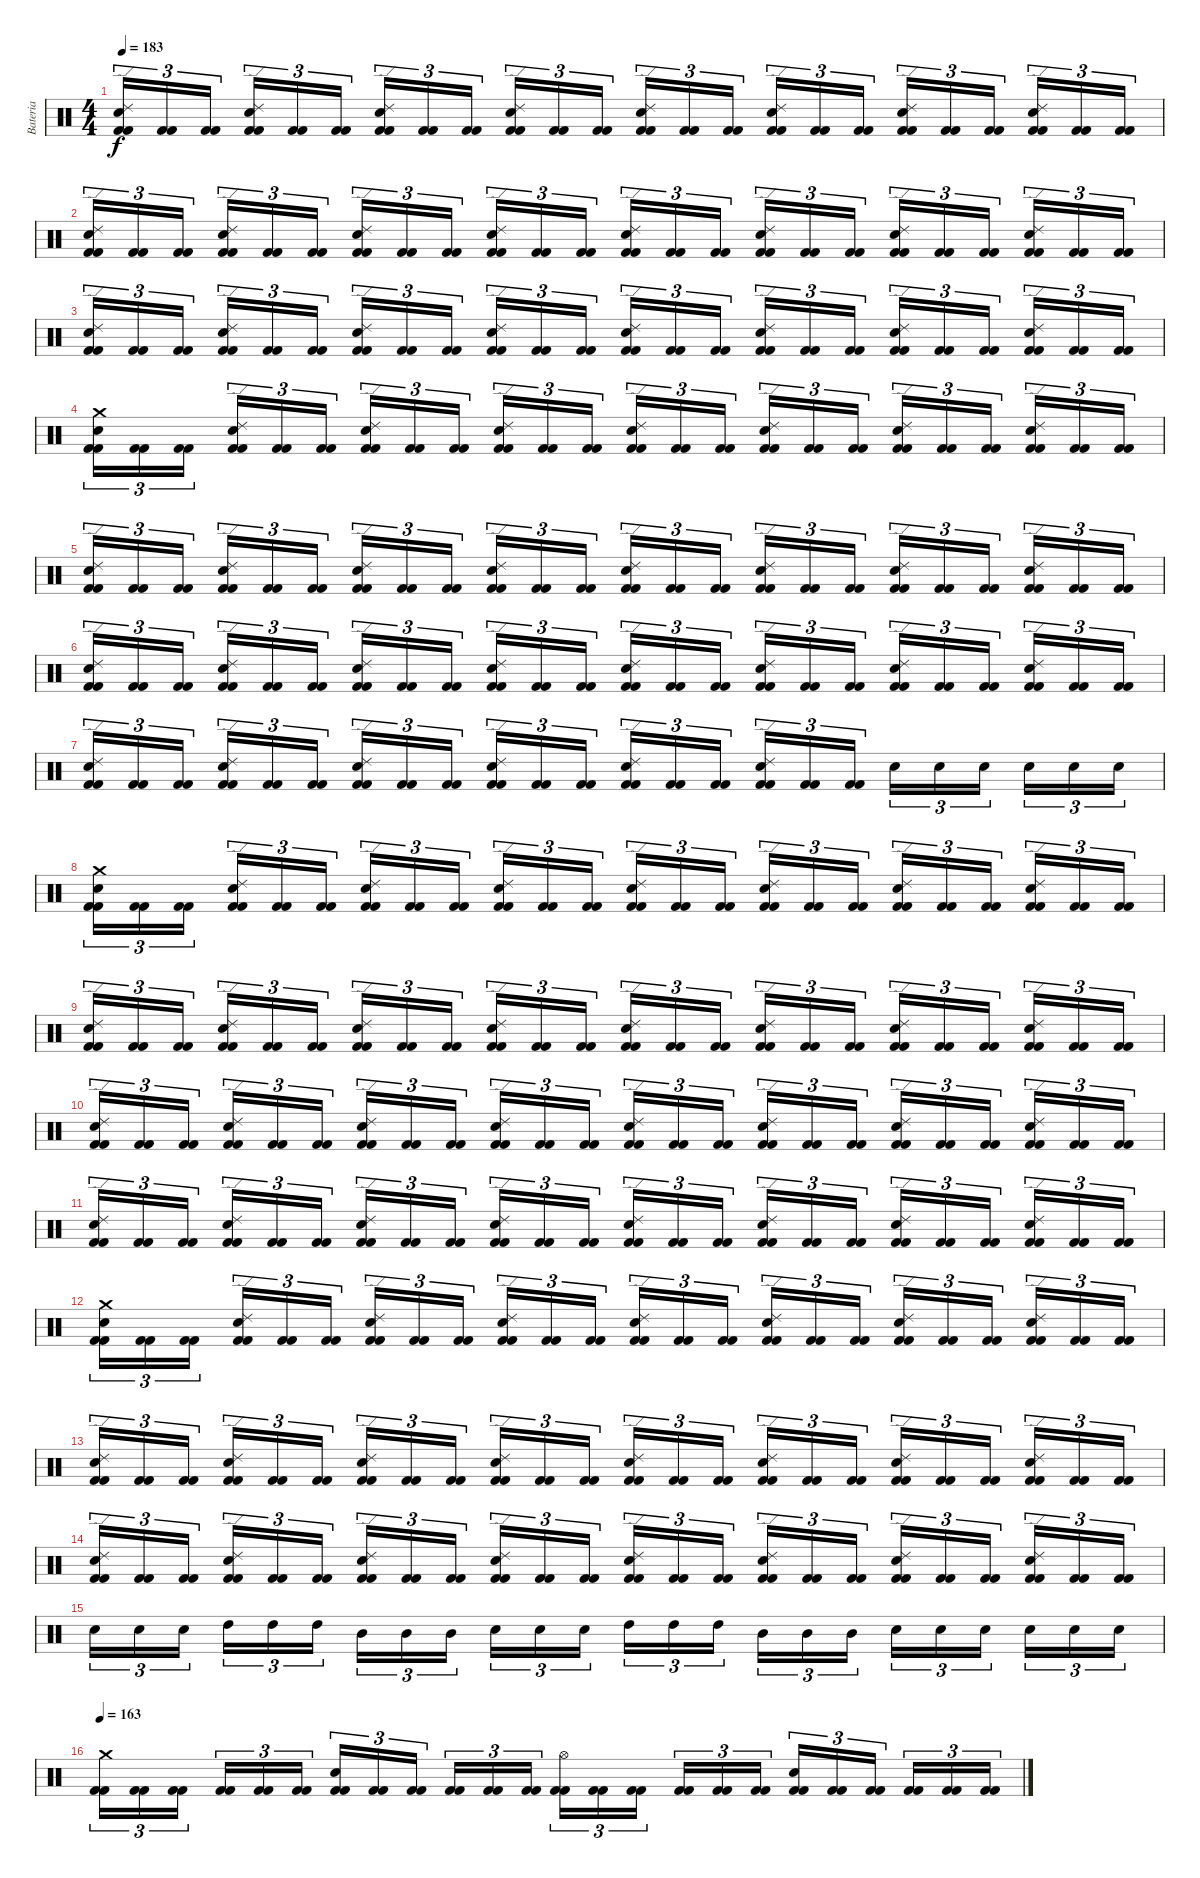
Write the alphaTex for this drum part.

\track ("Bateria" "Bateria") {instrument percussion}
\staff {score}
\articulation defaults
\ts (4 4)
\tempo 183
\clef neutral
\ks c
("Kick (hit) 2" "Kick (hit) 2" "Snare (hit) 2" "Ride (edge) 2").16{tu (3 2) dy f} ("Kick (hit) 2" "Kick (hit) 2").16{tu (3 2)} ("Kick (hit) 2" "Kick (hit) 2").16{tu (3 2)} ("Kick (hit) 2" "Kick (hit) 2" "Snare (hit) 2" "Ride (edge) 2").16{tu (3 2)} ("Kick (hit) 2" "Kick (hit) 2").16{tu (3 2)} ("Kick (hit) 2" "Kick (hit) 2").16{tu (3 2)} ("Kick (hit) 2" "Kick (hit) 2" "Snare (hit) 2" "Ride (edge) 2").16{tu (3 2)} ("Kick (hit) 2" "Kick (hit) 2").16{tu (3 2)} ("Kick (hit) 2" "Kick (hit) 2").16{tu (3 2)} ("Kick (hit) 2" "Kick (hit) 2" "Snare (hit) 2" "Ride (edge) 2").16{tu (3 2)} ("Kick (hit) 2" "Kick (hit) 2").16{tu (3 2)} ("Kick (hit) 2" "Kick (hit) 2").16{tu (3 2)} ("Kick (hit) 2" "Kick (hit) 2" "Snare (hit) 2" "Ride (edge) 2").16{tu (3 2)} ("Kick (hit) 2" "Kick (hit) 2").16{tu (3 2)} ("Kick (hit) 2" "Kick (hit) 2").16{tu (3 2)} ("Kick (hit) 2" "Kick (hit) 2" "Snare (hit) 2" "Ride (edge) 2").16{tu (3 2)} ("Kick (hit) 2" "Kick (hit) 2").16{tu (3 2)} ("Kick (hit) 2" "Kick (hit) 2").16{tu (3 2)} ("Kick (hit) 2" "Kick (hit) 2" "Snare (hit) 2" "Ride (edge) 2").16{tu (3 2)} ("Kick (hit) 2" "Kick (hit) 2").16{tu (3 2)} ("Kick (hit) 2" "Kick (hit) 2").16{tu (3 2)} ("Kick (hit) 2" "Kick (hit) 2" "Snare (hit) 2" "Ride (edge) 2").16{tu (3 2)} ("Kick (hit) 2" "Kick (hit) 2").16{tu (3 2)} ("Kick (hit) 2" "Kick (hit) 2").16{tu (3 2)} |
("Kick (hit) 2" "Kick (hit) 2" "Snare (hit) 2" "Ride (edge) 2").16{tu (3 2)} ("Kick (hit) 2" "Kick (hit) 2").16{tu (3 2)} ("Kick (hit) 2" "Kick (hit) 2").16{tu (3 2)} ("Kick (hit) 2" "Kick (hit) 2" "Snare (hit) 2" "Ride (edge) 2").16{tu (3 2)} ("Kick (hit) 2" "Kick (hit) 2").16{tu (3 2)} ("Kick (hit) 2" "Kick (hit) 2").16{tu (3 2)} ("Kick (hit) 2" "Kick (hit) 2" "Snare (hit) 2" "Ride (edge) 2").16{tu (3 2)} ("Kick (hit) 2" "Kick (hit) 2").16{tu (3 2)} ("Kick (hit) 2" "Kick (hit) 2").16{tu (3 2)} ("Kick (hit) 2" "Kick (hit) 2" "Snare (hit) 2" "Ride (edge) 2").16{tu (3 2)} ("Kick (hit) 2" "Kick (hit) 2").16{tu (3 2)} ("Kick (hit) 2" "Kick (hit) 2").16{tu (3 2)} ("Kick (hit) 2" "Kick (hit) 2" "Snare (hit) 2" "Ride (edge) 2").16{tu (3 2)} ("Kick (hit) 2" "Kick (hit) 2").16{tu (3 2)} ("Kick (hit) 2" "Kick (hit) 2").16{tu (3 2)} ("Kick (hit) 2" "Kick (hit) 2" "Snare (hit) 2" "Ride (edge) 2").16{tu (3 2)} ("Kick (hit) 2" "Kick (hit) 2").16{tu (3 2)} ("Kick (hit) 2" "Kick (hit) 2").16{tu (3 2)} ("Kick (hit) 2" "Kick (hit) 2" "Snare (hit) 2" "Ride (edge) 2").16{tu (3 2)} ("Kick (hit) 2" "Kick (hit) 2").16{tu (3 2)} ("Kick (hit) 2" "Kick (hit) 2").16{tu (3 2)} ("Kick (hit) 2" "Kick (hit) 2" "Snare (hit) 2" "Ride (edge) 2").16{tu (3 2)} ("Kick (hit) 2" "Kick (hit) 2").16{tu (3 2)} ("Kick (hit) 2" "Kick (hit) 2").16{tu (3 2)} |
("Kick (hit) 2" "Kick (hit) 2" "Snare (hit) 2" "Ride (edge) 2").16{tu (3 2)} ("Kick (hit) 2" "Kick (hit) 2").16{tu (3 2)} ("Kick (hit) 2" "Kick (hit) 2").16{tu (3 2)} ("Kick (hit) 2" "Kick (hit) 2" "Snare (hit) 2" "Ride (edge) 2").16{tu (3 2)} ("Kick (hit) 2" "Kick (hit) 2").16{tu (3 2)} ("Kick (hit) 2" "Kick (hit) 2").16{tu (3 2)} ("Kick (hit) 2" "Kick (hit) 2" "Snare (hit) 2" "Ride (edge) 2").16{tu (3 2)} ("Kick (hit) 2" "Kick (hit) 2").16{tu (3 2)} ("Kick (hit) 2" "Kick (hit) 2").16{tu (3 2)} ("Kick (hit) 2" "Kick (hit) 2" "Snare (hit) 2" "Ride (edge) 2").16{tu (3 2)} ("Kick (hit) 2" "Kick (hit) 2").16{tu (3 2)} ("Kick (hit) 2" "Kick (hit) 2").16{tu (3 2)} ("Kick (hit) 2" "Kick (hit) 2" "Snare (hit) 2" "Ride (edge) 2").16{tu (3 2)} ("Kick (hit) 2" "Kick (hit) 2").16{tu (3 2)} ("Kick (hit) 2" "Kick (hit) 2").16{tu (3 2)} ("Kick (hit) 2" "Kick (hit) 2" "Snare (hit) 2" "Ride (edge) 2").16{tu (3 2)} ("Kick (hit) 2" "Kick (hit) 2").16{tu (3 2)} ("Kick (hit) 2" "Kick (hit) 2").16{tu (3 2)} ("Kick (hit) 2" "Kick (hit) 2" "Snare (hit) 2" "Ride (edge) 2").16{tu (3 2)} ("Kick (hit) 2" "Kick (hit) 2").16{tu (3 2)} ("Kick (hit) 2" "Kick (hit) 2").16{tu (3 2)} ("Kick (hit) 2" "Kick (hit) 2" "Snare (hit) 2" "Ride (edge) 2").16{tu (3 2)} ("Kick (hit) 2" "Kick (hit) 2").16{tu (3 2)} ("Kick (hit) 2" "Kick (hit) 2").16{tu (3 2)} |
("Kick (hit) 2" "Kick (hit) 2" "Snare (hit) 2" "Crash medium (hit)").16{tu (3 2)} ("Kick (hit) 2" "Kick (hit) 2").16{tu (3 2)} ("Kick (hit) 2" "Kick (hit) 2").16{tu (3 2)} ("Kick (hit) 2" "Kick (hit) 2" "Snare (hit) 2" "Ride (edge) 2").16{tu (3 2)} ("Kick (hit) 2" "Kick (hit) 2").16{tu (3 2)} ("Kick (hit) 2" "Kick (hit) 2").16{tu (3 2)} ("Kick (hit) 2" "Kick (hit) 2" "Snare (hit) 2" "Ride (edge) 2").16{tu (3 2)} ("Kick (hit) 2" "Kick (hit) 2").16{tu (3 2)} ("Kick (hit) 2" "Kick (hit) 2").16{tu (3 2)} ("Kick (hit) 2" "Kick (hit) 2" "Snare (hit) 2" "Ride (edge) 2").16{tu (3 2)} ("Kick (hit) 2" "Kick (hit) 2").16{tu (3 2)} ("Kick (hit) 2" "Kick (hit) 2").16{tu (3 2)} ("Kick (hit) 2" "Kick (hit) 2" "Snare (hit) 2" "Ride (edge) 2").16{tu (3 2)} ("Kick (hit) 2" "Kick (hit) 2").16{tu (3 2)} ("Kick (hit) 2" "Kick (hit) 2").16{tu (3 2)} ("Kick (hit) 2" "Kick (hit) 2" "Snare (hit) 2" "Ride (edge) 2").16{tu (3 2)} ("Kick (hit) 2" "Kick (hit) 2").16{tu (3 2)} ("Kick (hit) 2" "Kick (hit) 2").16{tu (3 2)} ("Kick (hit) 2" "Kick (hit) 2" "Snare (hit) 2" "Ride (edge) 2").16{tu (3 2)} ("Kick (hit) 2" "Kick (hit) 2").16{tu (3 2)} ("Kick (hit) 2" "Kick (hit) 2").16{tu (3 2)} ("Kick (hit) 2" "Kick (hit) 2" "Snare (hit) 2" "Ride (edge) 2").16{tu (3 2)} ("Kick (hit) 2" "Kick (hit) 2").16{tu (3 2)} ("Kick (hit) 2" "Kick (hit) 2").16{tu (3 2)} |
("Kick (hit) 2" "Kick (hit) 2" "Snare (hit) 2" "Ride (edge) 2").16{tu (3 2)} ("Kick (hit) 2" "Kick (hit) 2").16{tu (3 2)} ("Kick (hit) 2" "Kick (hit) 2").16{tu (3 2)} ("Kick (hit) 2" "Kick (hit) 2" "Snare (hit) 2" "Ride (edge) 2").16{tu (3 2)} ("Kick (hit) 2" "Kick (hit) 2").16{tu (3 2)} ("Kick (hit) 2" "Kick (hit) 2").16{tu (3 2)} ("Kick (hit) 2" "Kick (hit) 2" "Snare (hit) 2" "Ride (edge) 2").16{tu (3 2)} ("Kick (hit) 2" "Kick (hit) 2").16{tu (3 2)} ("Kick (hit) 2" "Kick (hit) 2").16{tu (3 2)} ("Kick (hit) 2" "Kick (hit) 2" "Snare (hit) 2" "Ride (edge) 2").16{tu (3 2)} ("Kick (hit) 2" "Kick (hit) 2").16{tu (3 2)} ("Kick (hit) 2" "Kick (hit) 2").16{tu (3 2)} ("Kick (hit) 2" "Kick (hit) 2" "Snare (hit) 2" "Ride (edge) 2").16{tu (3 2)} ("Kick (hit) 2" "Kick (hit) 2").16{tu (3 2)} ("Kick (hit) 2" "Kick (hit) 2").16{tu (3 2)} ("Kick (hit) 2" "Kick (hit) 2" "Snare (hit) 2" "Ride (edge) 2").16{tu (3 2)} ("Kick (hit) 2" "Kick (hit) 2").16{tu (3 2)} ("Kick (hit) 2" "Kick (hit) 2").16{tu (3 2)} ("Kick (hit) 2" "Kick (hit) 2" "Snare (hit) 2" "Ride (edge) 2").16{tu (3 2)} ("Kick (hit) 2" "Kick (hit) 2").16{tu (3 2)} ("Kick (hit) 2" "Kick (hit) 2").16{tu (3 2)} ("Kick (hit) 2" "Kick (hit) 2" "Snare (hit) 2" "Ride (edge) 2").16{tu (3 2)} ("Kick (hit) 2" "Kick (hit) 2").16{tu (3 2)} ("Kick (hit) 2" "Kick (hit) 2").16{tu (3 2)} |
("Kick (hit) 2" "Kick (hit) 2" "Snare (hit) 2" "Ride (edge) 2").16{tu (3 2)} ("Kick (hit) 2" "Kick (hit) 2").16{tu (3 2)} ("Kick (hit) 2" "Kick (hit) 2").16{tu (3 2)} ("Kick (hit) 2" "Kick (hit) 2" "Snare (hit) 2" "Ride (edge) 2").16{tu (3 2)} ("Kick (hit) 2" "Kick (hit) 2").16{tu (3 2)} ("Kick (hit) 2" "Kick (hit) 2").16{tu (3 2)} ("Kick (hit) 2" "Kick (hit) 2" "Snare (hit) 2" "Ride (edge) 2").16{tu (3 2)} ("Kick (hit) 2" "Kick (hit) 2").16{tu (3 2)} ("Kick (hit) 2" "Kick (hit) 2").16{tu (3 2)} ("Kick (hit) 2" "Kick (hit) 2" "Snare (hit) 2" "Ride (edge) 2").16{tu (3 2)} ("Kick (hit) 2" "Kick (hit) 2").16{tu (3 2)} ("Kick (hit) 2" "Kick (hit) 2").16{tu (3 2)} ("Kick (hit) 2" "Kick (hit) 2" "Snare (hit) 2" "Ride (edge) 2").16{tu (3 2)} ("Kick (hit) 2" "Kick (hit) 2").16{tu (3 2)} ("Kick (hit) 2" "Kick (hit) 2").16{tu (3 2)} ("Kick (hit) 2" "Kick (hit) 2" "Snare (hit) 2" "Ride (edge) 2").16{tu (3 2)} ("Kick (hit) 2" "Kick (hit) 2").16{tu (3 2)} ("Kick (hit) 2" "Kick (hit) 2").16{tu (3 2)} ("Kick (hit) 2" "Kick (hit) 2" "Snare (hit) 2" "Ride (edge) 2").16{tu (3 2)} ("Kick (hit) 2" "Kick (hit) 2").16{tu (3 2)} ("Kick (hit) 2" "Kick (hit) 2").16{tu (3 2)} ("Kick (hit) 2" "Kick (hit) 2" "Snare (hit) 2" "Ride (edge) 2").16{tu (3 2)} ("Kick (hit) 2" "Kick (hit) 2").16{tu (3 2)} ("Kick (hit) 2" "Kick (hit) 2").16{tu (3 2)} |
("Kick (hit) 2" "Kick (hit) 2" "Snare (hit) 2" "Ride (edge) 2").16{tu (3 2)} ("Kick (hit) 2" "Kick (hit) 2").16{tu (3 2)} ("Kick (hit) 2" "Kick (hit) 2").16{tu (3 2)} ("Kick (hit) 2" "Kick (hit) 2" "Snare (hit) 2" "Ride (edge) 2").16{tu (3 2)} ("Kick (hit) 2" "Kick (hit) 2").16{tu (3 2)} ("Kick (hit) 2" "Kick (hit) 2").16{tu (3 2)} ("Kick (hit) 2" "Kick (hit) 2" "Snare (hit) 2" "Ride (edge) 2").16{tu (3 2)} ("Kick (hit) 2" "Kick (hit) 2").16{tu (3 2)} ("Kick (hit) 2" "Kick (hit) 2").16{tu (3 2)} ("Kick (hit) 2" "Kick (hit) 2" "Snare (hit) 2" "Ride (edge) 2").16{tu (3 2)} ("Kick (hit) 2" "Kick (hit) 2").16{tu (3 2)} ("Kick (hit) 2" "Kick (hit) 2").16{tu (3 2)} ("Kick (hit) 2" "Kick (hit) 2" "Snare (hit) 2" "Ride (edge) 2").16{tu (3 2)} ("Kick (hit) 2" "Kick (hit) 2").16{tu (3 2)} ("Kick (hit) 2" "Kick (hit) 2").16{tu (3 2)} ("Kick (hit) 2" "Kick (hit) 2" "Snare (hit) 2" "Ride (edge) 2").16{tu (3 2)} ("Kick (hit) 2" "Kick (hit) 2").16{tu (3 2)} ("Kick (hit) 2" "Kick (hit) 2").16{tu (3 2)} "Snare (hit) 2".16{tu (3 2)} "Snare (hit) 2".16{tu (3 2)} "Snare (hit) 2".16{tu (3 2)} "Snare (hit) 2".16{tu (3 2)} "Snare (hit) 2".16{tu (3 2)} "Snare (hit) 2".16{tu (3 2)} |
("Kick (hit) 2" "Kick (hit) 2" "Snare (hit) 2" "Crash medium (hit)").16{tu (3 2)} ("Kick (hit) 2" "Kick (hit) 2").16{tu (3 2)} ("Kick (hit) 2" "Kick (hit) 2").16{tu (3 2)} ("Kick (hit) 2" "Kick (hit) 2" "Snare (hit) 2" "Ride (edge) 2").16{tu (3 2)} ("Kick (hit) 2" "Kick (hit) 2").16{tu (3 2)} ("Kick (hit) 2" "Kick (hit) 2").16{tu (3 2)} ("Kick (hit) 2" "Kick (hit) 2" "Snare (hit) 2" "Ride (edge) 2").16{tu (3 2)} ("Kick (hit) 2" "Kick (hit) 2").16{tu (3 2)} ("Kick (hit) 2" "Kick (hit) 2").16{tu (3 2)} ("Kick (hit) 2" "Kick (hit) 2" "Snare (hit) 2" "Ride (edge) 2").16{tu (3 2)} ("Kick (hit) 2" "Kick (hit) 2").16{tu (3 2)} ("Kick (hit) 2" "Kick (hit) 2").16{tu (3 2)} ("Kick (hit) 2" "Kick (hit) 2" "Snare (hit) 2" "Ride (edge) 2").16{tu (3 2)} ("Kick (hit) 2" "Kick (hit) 2").16{tu (3 2)} ("Kick (hit) 2" "Kick (hit) 2").16{tu (3 2)} ("Kick (hit) 2" "Kick (hit) 2" "Snare (hit) 2" "Ride (edge) 2").16{tu (3 2)} ("Kick (hit) 2" "Kick (hit) 2").16{tu (3 2)} ("Kick (hit) 2" "Kick (hit) 2").16{tu (3 2)} ("Kick (hit) 2" "Kick (hit) 2" "Snare (hit) 2" "Ride (edge) 2").16{tu (3 2)} ("Kick (hit) 2" "Kick (hit) 2").16{tu (3 2)} ("Kick (hit) 2" "Kick (hit) 2").16{tu (3 2)} ("Kick (hit) 2" "Kick (hit) 2" "Snare (hit) 2" "Ride (edge) 2").16{tu (3 2)} ("Kick (hit) 2" "Kick (hit) 2").16{tu (3 2)} ("Kick (hit) 2" "Kick (hit) 2").16{tu (3 2)} |
("Kick (hit) 2" "Kick (hit) 2" "Snare (hit) 2" "Ride (edge) 2").16{tu (3 2)} ("Kick (hit) 2" "Kick (hit) 2").16{tu (3 2)} ("Kick (hit) 2" "Kick (hit) 2").16{tu (3 2)} ("Kick (hit) 2" "Kick (hit) 2" "Snare (hit) 2" "Ride (edge) 2").16{tu (3 2)} ("Kick (hit) 2" "Kick (hit) 2").16{tu (3 2)} ("Kick (hit) 2" "Kick (hit) 2").16{tu (3 2)} ("Kick (hit) 2" "Kick (hit) 2" "Snare (hit) 2" "Ride (edge) 2").16{tu (3 2)} ("Kick (hit) 2" "Kick (hit) 2").16{tu (3 2)} ("Kick (hit) 2" "Kick (hit) 2").16{tu (3 2)} ("Kick (hit) 2" "Kick (hit) 2" "Snare (hit) 2" "Ride (edge) 2").16{tu (3 2)} ("Kick (hit) 2" "Kick (hit) 2").16{tu (3 2)} ("Kick (hit) 2" "Kick (hit) 2").16{tu (3 2)} ("Kick (hit) 2" "Kick (hit) 2" "Snare (hit) 2" "Ride (edge) 2").16{tu (3 2)} ("Kick (hit) 2" "Kick (hit) 2").16{tu (3 2)} ("Kick (hit) 2" "Kick (hit) 2").16{tu (3 2)} ("Kick (hit) 2" "Kick (hit) 2" "Snare (hit) 2" "Ride (edge) 2").16{tu (3 2)} ("Kick (hit) 2" "Kick (hit) 2").16{tu (3 2)} ("Kick (hit) 2" "Kick (hit) 2").16{tu (3 2)} ("Kick (hit) 2" "Kick (hit) 2" "Snare (hit) 2" "Ride (edge) 2").16{tu (3 2)} ("Kick (hit) 2" "Kick (hit) 2").16{tu (3 2)} ("Kick (hit) 2" "Kick (hit) 2").16{tu (3 2)} ("Kick (hit) 2" "Kick (hit) 2" "Snare (hit) 2" "Ride (edge) 2").16{tu (3 2)} ("Kick (hit) 2" "Kick (hit) 2").16{tu (3 2)} ("Kick (hit) 2" "Kick (hit) 2").16{tu (3 2)} |
("Kick (hit) 2" "Kick (hit) 2" "Snare (hit) 2" "Ride (edge) 2").16{tu (3 2)} ("Kick (hit) 2" "Kick (hit) 2").16{tu (3 2)} ("Kick (hit) 2" "Kick (hit) 2").16{tu (3 2)} ("Kick (hit) 2" "Kick (hit) 2" "Snare (hit) 2" "Ride (edge) 2").16{tu (3 2)} ("Kick (hit) 2" "Kick (hit) 2").16{tu (3 2)} ("Kick (hit) 2" "Kick (hit) 2").16{tu (3 2)} ("Kick (hit) 2" "Kick (hit) 2" "Snare (hit) 2" "Ride (edge) 2").16{tu (3 2)} ("Kick (hit) 2" "Kick (hit) 2").16{tu (3 2)} ("Kick (hit) 2" "Kick (hit) 2").16{tu (3 2)} ("Kick (hit) 2" "Kick (hit) 2" "Snare (hit) 2" "Ride (edge) 2").16{tu (3 2)} ("Kick (hit) 2" "Kick (hit) 2").16{tu (3 2)} ("Kick (hit) 2" "Kick (hit) 2").16{tu (3 2)} ("Kick (hit) 2" "Kick (hit) 2" "Snare (hit) 2" "Ride (edge) 2").16{tu (3 2)} ("Kick (hit) 2" "Kick (hit) 2").16{tu (3 2)} ("Kick (hit) 2" "Kick (hit) 2").16{tu (3 2)} ("Kick (hit) 2" "Kick (hit) 2" "Snare (hit) 2" "Ride (edge) 2").16{tu (3 2)} ("Kick (hit) 2" "Kick (hit) 2").16{tu (3 2)} ("Kick (hit) 2" "Kick (hit) 2").16{tu (3 2)} ("Kick (hit) 2" "Kick (hit) 2" "Snare (hit) 2" "Ride (edge) 2").16{tu (3 2)} ("Kick (hit) 2" "Kick (hit) 2").16{tu (3 2)} ("Kick (hit) 2" "Kick (hit) 2").16{tu (3 2)} ("Kick (hit) 2" "Kick (hit) 2" "Snare (hit) 2" "Ride (edge) 2").16{tu (3 2)} ("Kick (hit) 2" "Kick (hit) 2").16{tu (3 2)} ("Kick (hit) 2" "Kick (hit) 2").16{tu (3 2)} |
("Kick (hit) 2" "Kick (hit) 2" "Snare (hit) 2" "Ride (edge) 2").16{tu (3 2)} ("Kick (hit) 2" "Kick (hit) 2").16{tu (3 2)} ("Kick (hit) 2" "Kick (hit) 2").16{tu (3 2)} ("Kick (hit) 2" "Kick (hit) 2" "Snare (hit) 2" "Ride (edge) 2").16{tu (3 2)} ("Kick (hit) 2" "Kick (hit) 2").16{tu (3 2)} ("Kick (hit) 2" "Kick (hit) 2").16{tu (3 2)} ("Kick (hit) 2" "Kick (hit) 2" "Snare (hit) 2" "Ride (edge) 2").16{tu (3 2)} ("Kick (hit) 2" "Kick (hit) 2").16{tu (3 2)} ("Kick (hit) 2" "Kick (hit) 2").16{tu (3 2)} ("Kick (hit) 2" "Kick (hit) 2" "Snare (hit) 2" "Ride (edge) 2").16{tu (3 2)} ("Kick (hit) 2" "Kick (hit) 2").16{tu (3 2)} ("Kick (hit) 2" "Kick (hit) 2").16{tu (3 2)} ("Kick (hit) 2" "Kick (hit) 2" "Snare (hit) 2" "Ride (edge) 2").16{tu (3 2)} ("Kick (hit) 2" "Kick (hit) 2").16{tu (3 2)} ("Kick (hit) 2" "Kick (hit) 2").16{tu (3 2)} ("Kick (hit) 2" "Kick (hit) 2" "Snare (hit) 2" "Ride (edge) 2").16{tu (3 2)} ("Kick (hit) 2" "Kick (hit) 2").16{tu (3 2)} ("Kick (hit) 2" "Kick (hit) 2").16{tu (3 2)} ("Kick (hit) 2" "Kick (hit) 2" "Snare (hit) 2" "Ride (edge) 2").16{tu (3 2)} ("Kick (hit) 2" "Kick (hit) 2").16{tu (3 2)} ("Kick (hit) 2" "Kick (hit) 2").16{tu (3 2)} ("Kick (hit) 2" "Kick (hit) 2" "Snare (hit) 2" "Ride (edge) 2").16{tu (3 2)} ("Kick (hit) 2" "Kick (hit) 2").16{tu (3 2)} ("Kick (hit) 2" "Kick (hit) 2").16{tu (3 2)} |
("Kick (hit) 2" "Kick (hit) 2" "Snare (hit) 2" "Crash medium (hit)").16{tu (3 2)} ("Kick (hit) 2" "Kick (hit) 2").16{tu (3 2)} ("Kick (hit) 2" "Kick (hit) 2").16{tu (3 2)} ("Kick (hit) 2" "Kick (hit) 2" "Snare (hit) 2" "Ride (edge) 2").16{tu (3 2)} ("Kick (hit) 2" "Kick (hit) 2").16{tu (3 2)} ("Kick (hit) 2" "Kick (hit) 2").16{tu (3 2)} ("Kick (hit) 2" "Kick (hit) 2" "Snare (hit) 2" "Ride (edge) 2").16{tu (3 2)} ("Kick (hit) 2" "Kick (hit) 2").16{tu (3 2)} ("Kick (hit) 2" "Kick (hit) 2").16{tu (3 2)} ("Kick (hit) 2" "Kick (hit) 2" "Snare (hit) 2" "Ride (edge) 2").16{tu (3 2)} ("Kick (hit) 2" "Kick (hit) 2").16{tu (3 2)} ("Kick (hit) 2" "Kick (hit) 2").16{tu (3 2)} ("Kick (hit) 2" "Kick (hit) 2" "Snare (hit) 2" "Ride (edge) 2").16{tu (3 2)} ("Kick (hit) 2" "Kick (hit) 2").16{tu (3 2)} ("Kick (hit) 2" "Kick (hit) 2").16{tu (3 2)} ("Kick (hit) 2" "Kick (hit) 2" "Snare (hit) 2" "Ride (edge) 2").16{tu (3 2)} ("Kick (hit) 2" "Kick (hit) 2").16{tu (3 2)} ("Kick (hit) 2" "Kick (hit) 2").16{tu (3 2)} ("Kick (hit) 2" "Kick (hit) 2" "Snare (hit) 2" "Ride (edge) 2").16{tu (3 2)} ("Kick (hit) 2" "Kick (hit) 2").16{tu (3 2)} ("Kick (hit) 2" "Kick (hit) 2").16{tu (3 2)} ("Kick (hit) 2" "Kick (hit) 2" "Snare (hit) 2" "Ride (edge) 2").16{tu (3 2)} ("Kick (hit) 2" "Kick (hit) 2").16{tu (3 2)} ("Kick (hit) 2" "Kick (hit) 2").16{tu (3 2)} |
("Kick (hit) 2" "Kick (hit) 2" "Snare (hit) 2" "Ride (edge) 2").16{tu (3 2)} ("Kick (hit) 2" "Kick (hit) 2").16{tu (3 2)} ("Kick (hit) 2" "Kick (hit) 2").16{tu (3 2)} ("Kick (hit) 2" "Kick (hit) 2" "Snare (hit) 2" "Ride (edge) 2").16{tu (3 2)} ("Kick (hit) 2" "Kick (hit) 2").16{tu (3 2)} ("Kick (hit) 2" "Kick (hit) 2").16{tu (3 2)} ("Kick (hit) 2" "Kick (hit) 2" "Snare (hit) 2" "Ride (edge) 2").16{tu (3 2)} ("Kick (hit) 2" "Kick (hit) 2").16{tu (3 2)} ("Kick (hit) 2" "Kick (hit) 2").16{tu (3 2)} ("Kick (hit) 2" "Kick (hit) 2" "Snare (hit) 2" "Ride (edge) 2").16{tu (3 2)} ("Kick (hit) 2" "Kick (hit) 2").16{tu (3 2)} ("Kick (hit) 2" "Kick (hit) 2").16{tu (3 2)} ("Kick (hit) 2" "Kick (hit) 2" "Snare (hit) 2" "Ride (edge) 2").16{tu (3 2)} ("Kick (hit) 2" "Kick (hit) 2").16{tu (3 2)} ("Kick (hit) 2" "Kick (hit) 2").16{tu (3 2)} ("Kick (hit) 2" "Kick (hit) 2" "Snare (hit) 2" "Ride (edge) 2").16{tu (3 2)} ("Kick (hit) 2" "Kick (hit) 2").16{tu (3 2)} ("Kick (hit) 2" "Kick (hit) 2").16{tu (3 2)} ("Kick (hit) 2" "Kick (hit) 2" "Snare (hit) 2" "Ride (edge) 2").16{tu (3 2)} ("Kick (hit) 2" "Kick (hit) 2").16{tu (3 2)} ("Kick (hit) 2" "Kick (hit) 2").16{tu (3 2)} ("Kick (hit) 2" "Kick (hit) 2" "Snare (hit) 2" "Ride (edge) 2").16{tu (3 2)} ("Kick (hit) 2" "Kick (hit) 2").16{tu (3 2)} ("Kick (hit) 2" "Kick (hit) 2").16{tu (3 2)} |
("Kick (hit) 2" "Kick (hit) 2" "Snare (hit) 2" "Ride (edge) 2").16{tu (3 2)} ("Kick (hit) 2" "Kick (hit) 2").16{tu (3 2)} ("Kick (hit) 2" "Kick (hit) 2").16{tu (3 2)} ("Kick (hit) 2" "Kick (hit) 2" "Snare (hit) 2" "Ride (edge) 2").16{tu (3 2)} ("Kick (hit) 2" "Kick (hit) 2").16{tu (3 2)} ("Kick (hit) 2" "Kick (hit) 2").16{tu (3 2)} ("Kick (hit) 2" "Kick (hit) 2" "Snare (hit) 2" "Ride (edge) 2").16{tu (3 2)} ("Kick (hit) 2" "Kick (hit) 2").16{tu (3 2)} ("Kick (hit) 2" "Kick (hit) 2").16{tu (3 2)} ("Kick (hit) 2" "Kick (hit) 2" "Snare (hit) 2" "Ride (edge) 2").16{tu (3 2)} ("Kick (hit) 2" "Kick (hit) 2").16{tu (3 2)} ("Kick (hit) 2" "Kick (hit) 2").16{tu (3 2)} ("Kick (hit) 2" "Kick (hit) 2" "Snare (hit) 2" "Ride (edge) 2").16{tu (3 2)} ("Kick (hit) 2" "Kick (hit) 2").16{tu (3 2)} ("Kick (hit) 2" "Kick (hit) 2").16{tu (3 2)} ("Kick (hit) 2" "Kick (hit) 2" "Snare (hit) 2" "Ride (edge) 2").16{tu (3 2)} ("Kick (hit) 2" "Kick (hit) 2").16{tu (3 2)} ("Kick (hit) 2" "Kick (hit) 2").16{tu (3 2)} ("Kick (hit) 2" "Kick (hit) 2" "Snare (hit) 2" "Ride (edge) 2").16{tu (3 2)} ("Kick (hit) 2" "Kick (hit) 2").16{tu (3 2)} ("Kick (hit) 2" "Kick (hit) 2").16{tu (3 2)} ("Kick (hit) 2" "Kick (hit) 2" "Snare (hit) 2" "Ride (edge) 2").16{tu (3 2)} ("Kick (hit) 2" "Kick (hit) 2").16{tu (3 2)} ("Kick (hit) 2" "Kick (hit) 2").16{tu (3 2)} |
"Snare (hit) 2".16{tu (3 2)} "Snare (hit) 2".16{tu (3 2)} "Snare (hit) 2".16{tu (3 2)} "High Tom (hit)".16{tu (3 2)} "High Tom (hit)".16{tu (3 2)} "High Tom (hit)".16{tu (3 2)} "Mid Tom (hit)".16{tu (3 2)} "Mid Tom (hit)".16{tu (3 2)} "Mid Tom (hit)".16{tu (3 2)} "Snare (hit) 2".16{tu (3 2)} "Snare (hit) 2".16{tu (3 2)} "Snare (hit) 2".16{tu (3 2)} "High Tom (hit)".16{tu (3 2)} "High Tom (hit)".16{tu (3 2)} "High Tom (hit)".16{tu (3 2)} "Mid Tom (hit)".16{tu (3 2)} "Mid Tom (hit)".16{tu (3 2)} "Mid Tom (hit)".16{tu (3 2)} "Snare (hit) 2".16{tu (3 2)} "Snare (hit) 2".16{tu (3 2)} "Snare (hit) 2".16{tu (3 2)} "Snare (hit) 2".16{tu (3 2)} "Snare (hit) 2".16{tu (3 2)} "Snare (hit) 2".16{tu (3 2)} |
\tempo 163
("Kick (hit) 2" "Kick (hit) 2" "Crash medium (hit)").16{tu (3 2)} ("Kick (hit) 2" "Kick (hit) 2").16{tu (3 2)} ("Kick (hit) 2" "Kick (hit) 2").16{tu (3 2)} ("Kick (hit) 2" "Kick (hit) 2").16{tu (3 2)} ("Kick (hit) 2" "Kick (hit) 2").16{tu (3 2)} ("Kick (hit) 2" "Kick (hit) 2").16{tu (3 2)} ("Kick (hit) 2" "Kick (hit) 2" "Snare (hit) 2").16{tu (3 2)} ("Kick (hit) 2" "Kick (hit) 2").16{tu (3 2)} ("Kick (hit) 2" "Kick (hit) 2").16{tu (3 2)} ("Kick (hit) 2" "Kick (hit) 2").16{tu (3 2)} ("Kick (hit) 2" "Kick (hit) 2").16{tu (3 2)} ("Kick (hit) 2" "Kick (hit) 2").16{tu (3 2)} ("Kick (hit) 2" "Kick (hit) 2" "Hi-Hat (open)").16{tu (3 2)} ("Kick (hit) 2" "Kick (hit) 2").16{tu (3 2)} ("Kick (hit) 2" "Kick (hit) 2").16{tu (3 2)} ("Kick (hit) 2" "Kick (hit) 2").16{tu (3 2)} ("Kick (hit) 2" "Kick (hit) 2").16{tu (3 2)} ("Kick (hit) 2" "Kick (hit) 2").16{tu (3 2)} ("Kick (hit) 2" "Kick (hit) 2" "Snare (hit) 2").16{tu (3 2)} ("Kick (hit) 2" "Kick (hit) 2").16{tu (3 2)} ("Kick (hit) 2" "Kick (hit) 2").16{tu (3 2)} ("Kick (hit) 2" "Kick (hit) 2").16{tu (3 2)} ("Kick (hit) 2" "Kick (hit) 2").16{tu (3 2)} ("Kick (hit) 2" "Kick (hit) 2").16{tu (3 2)}
